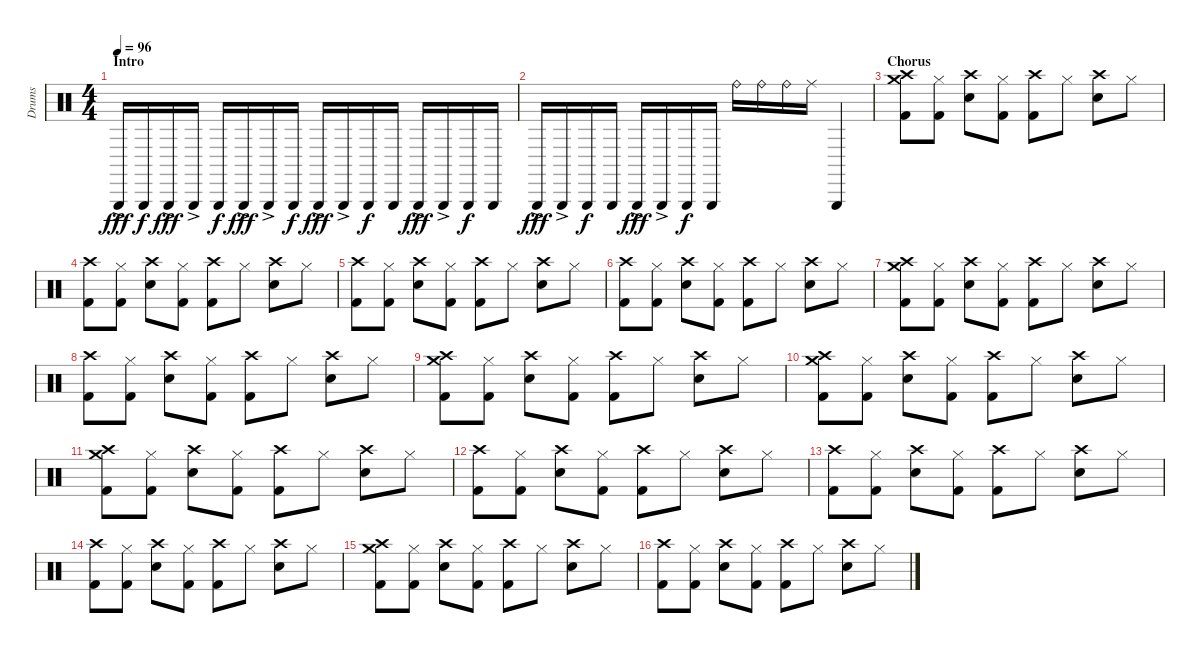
\track ("Drums" "Drums") {instrument percussion}
\staff {score}
\articulation defaults
\ts (4 4)
\section ("" "Intro")
\tempo 96
\clef neutral
\ks c "Triangle (hit)"{ac}.16{dy fff} "Triangle (hit)".16{dy f} "Triangle (hit)"{ac}.16{dy fff} "Triangle (hit)"{ac}.16 "Triangle (hit)".16{dy f} "Triangle (hit)"{ac}.16{dy fff} "Triangle (hit)"{ac}.16 "Triangle (hit)".16{dy f} "Triangle (hit)"{ac}.16{dy fff} "Triangle (hit)"{ac}.16 "Triangle (hit)".16{dy f} "Triangle (hit)".16 "Triangle (hit)"{ac}.16{dy fff} "Triangle (hit)"{ac}.16 "Triangle (hit)".16{dy f} "Triangle (hit)".16
|
"Triangle (hit)"{ac}.16{dy fff} "Triangle (hit)"{ac}.16 "Triangle (hit)".16{dy f} "Triangle (hit)".16 "Triangle (hit)"{ac}.16{dy fff} "Triangle (hit)"{ac}.16 "Triangle (hit)".16{dy f} "Triangle (hit)".16 "Ride (bell)".16 "Ride (bell)".16 "Ride (bell)".16 "Ride (middle)".16 "Triangle (hit)".4 |
\section ("" "Chorus")
("Crash high (hit)" "Crash medium (hit)" "Kick (hit) 2").8 ("Hi-Hat (closed)" "Kick (hit) 2").8 ("Crash high (hit)" "Electric Snare (hit)").8 ("Hi-Hat (closed)" "Kick (hit) 2").8 ("Crash high (hit)" "Kick (hit) 2").8 "Hi-Hat (closed)".8 ("Crash high (hit)" "Electric Snare (hit)").8 "Hi-Hat (closed)".8 |
("Crash high (hit)" "Kick (hit) 2").8 ("Hi-Hat (closed)" "Kick (hit) 2").8 ("Crash high (hit)" "Electric Snare (hit)").8 ("Hi-Hat (closed)" "Kick (hit) 2").8 ("Crash high (hit)" "Kick (hit) 2").8 "Hi-Hat (closed)".8 ("Crash high (hit)" "Electric Snare (hit)").8 "Hi-Hat (closed)".8 |
("Crash high (hit)" "Kick (hit) 2").8 ("Hi-Hat (closed)" "Kick (hit) 2").8 ("Crash high (hit)" "Electric Snare (hit)").8 ("Hi-Hat (closed)" "Kick (hit) 2").8 ("Crash high (hit)" "Kick (hit) 2").8 "Hi-Hat (closed)".8 ("Crash high (hit)" "Electric Snare (hit)").8 "Hi-Hat (closed)".8 |
("Crash high (hit)" "Kick (hit) 2").8 ("Hi-Hat (closed)" "Kick (hit) 2").8 ("Crash high (hit)" "Electric Snare (hit)").8 ("Hi-Hat (closed)" "Kick (hit) 2").8 ("Crash high (hit)" "Kick (hit) 2").8 "Hi-Hat (closed)".8 ("Crash high (hit)" "Electric Snare (hit)").8 "Hi-Hat (closed)".8 |
("Crash high (hit)" "Crash medium (hit)" "Kick (hit) 2").8 ("Hi-Hat (closed)" "Kick (hit) 2").8 ("Crash high (hit)" "Electric Snare (hit)").8 ("Hi-Hat (closed)" "Kick (hit) 2").8 ("Crash high (hit)" "Kick (hit) 2").8 "Hi-Hat (closed)".8 ("Crash high (hit)" "Electric Snare (hit)").8 "Hi-Hat (closed)".8 |
("Crash high (hit)" "Kick (hit) 2").8 ("Hi-Hat (closed)" "Kick (hit) 2").8 ("Crash high (hit)" "Electric Snare (hit)").8 ("Hi-Hat (closed)" "Kick (hit) 2").8 ("Crash high (hit)" "Kick (hit) 2").8 "Hi-Hat (closed)".8 ("Crash high (hit)" "Electric Snare (hit)").8 "Hi-Hat (closed)".8 |
("Crash high (hit)" "Crash medium (hit)" "Kick (hit) 2").8 ("Hi-Hat (closed)" "Kick (hit) 2").8 ("Crash high (hit)" "Electric Snare (hit)").8 ("Hi-Hat (closed)" "Kick (hit) 2").8 ("Crash high (hit)" "Kick (hit) 2").8 "Hi-Hat (closed)".8 ("Crash high (hit)" "Electric Snare (hit)").8 "Hi-Hat (closed)".8 |
("Crash high (hit)" "Crash medium (hit)" "Kick (hit) 2").8 ("Hi-Hat (closed)" "Kick (hit) 2").8 ("Crash high (hit)" "Electric Snare (hit)").8 ("Hi-Hat (closed)" "Kick (hit) 2").8 ("Crash high (hit)" "Kick (hit) 2").8 "Hi-Hat (closed)".8 ("Crash high (hit)" "Electric Snare (hit)").8 "Hi-Hat (closed)".8 |
("Crash high (hit)" "Crash medium (hit)" "Kick (hit) 2").8 ("Hi-Hat (closed)" "Kick (hit) 2").8 ("Crash high (hit)" "Electric Snare (hit)").8 ("Hi-Hat (closed)" "Kick (hit) 2").8 ("Crash high (hit)" "Kick (hit) 2").8 "Hi-Hat (closed)".8 ("Crash high (hit)" "Electric Snare (hit)").8 "Hi-Hat (closed)".8 |
("Crash high (hit)" "Kick (hit) 2").8 ("Hi-Hat (closed)" "Kick (hit) 2").8 ("Crash high (hit)" "Electric Snare (hit)").8 ("Hi-Hat (closed)" "Kick (hit) 2").8 ("Crash high (hit)" "Kick (hit) 2").8 "Hi-Hat (closed)".8 ("Crash high (hit)" "Electric Snare (hit)").8 "Hi-Hat (closed)".8 |
("Crash high (hit)" "Kick (hit) 2").8 ("Hi-Hat (closed)" "Kick (hit) 2").8 ("Crash high (hit)" "Electric Snare (hit)").8 ("Hi-Hat (closed)" "Kick (hit) 2").8 ("Crash high (hit)" "Kick (hit) 2").8 "Hi-Hat (closed)".8 ("Crash high (hit)" "Electric Snare (hit)").8 "Hi-Hat (closed)".8 |
("Crash high (hit)" "Kick (hit) 2").8 ("Hi-Hat (closed)" "Kick (hit) 2").8 ("Crash high (hit)" "Electric Snare (hit)").8 ("Hi-Hat (closed)" "Kick (hit) 2").8 ("Crash high (hit)" "Kick (hit) 2").8 "Hi-Hat (closed)".8 ("Crash high (hit)" "Electric Snare (hit)").8 "Hi-Hat (closed)".8 |
("Crash high (hit)" "Crash medium (hit)" "Kick (hit) 2").8 ("Hi-Hat (closed)" "Kick (hit) 2").8 ("Crash high (hit)" "Electric Snare (hit)").8 ("Hi-Hat (closed)" "Kick (hit) 2").8 ("Crash high (hit)" "Kick (hit) 2").8 "Hi-Hat (closed)".8 ("Crash high (hit)" "Electric Snare (hit)").8 "Hi-Hat (closed)".8 |
("Crash high (hit)" "Kick (hit) 2").8 ("Hi-Hat (closed)" "Kick (hit) 2").8 ("Crash high (hit)" "Electric Snare (hit)").8 ("Hi-Hat (closed)" "Kick (hit) 2").8 ("Crash high (hit)" "Kick (hit) 2").8 "Hi-Hat (closed)".8 ("Crash high (hit)" "Electric Snare (hit)").8 "Hi-Hat (closed)".8
